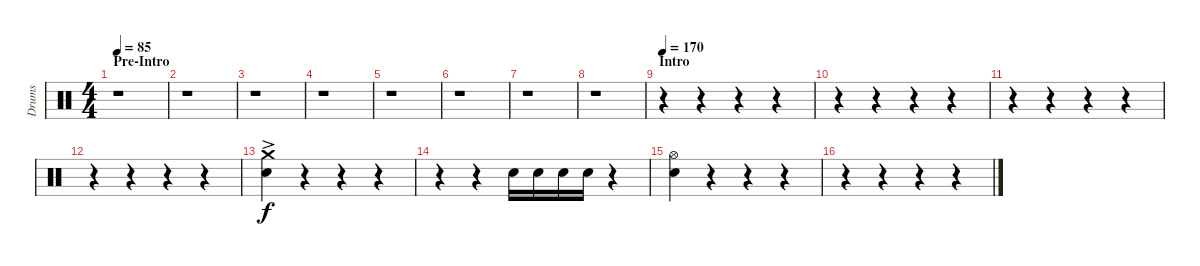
\track ("Drums" "Drums") {instrument percussion}
\staff {score}
\articulation defaults
\ts (4 4)
\section ("" "Pre-Intro")
\tempo 85
\clef neutral
\ks c
r.1{dy f} |
r.1 |
r.1 |
r.1 |
r.1 |
r.1 |
r.1 |
r.1 |
\section ("" "Intro")
\tempo 170
r.4 r.4 r.4 r.4 |
r.4 r.4 r.4 r.4 |
r.4 r.4 r.4 r.4 |
r.4 r.4 r.4 r.4 |
("Crash medium (hit)"{ac} "Electric Snare (hit)").4 r.4 r.4 r.4 |
r.4 r.4 "Electric Snare (hit)".16 "Electric Snare (hit)".16 "Electric Snare (hit)".16 "Electric Snare (hit)".16 r.4 |
("Hi-Hat (open)" "Electric Snare (hit)").4 r.4 r.4 r.4 |
r.4 r.4 r.4 r.4
